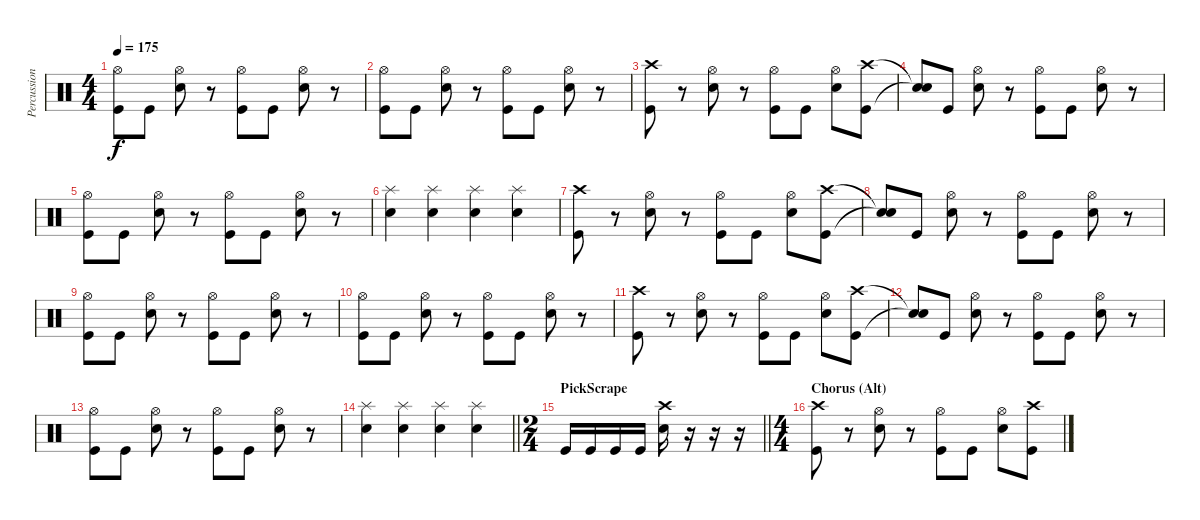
\track ("Percussion" "Percussion") {instrument percussion}
\staff {score}
\articulation defaults
\ts (4 4)
\tempo 175
\clef neutral
\ks c
("Hi-Hat (open)" "Kick (hit)").8{dy f} "Kick (hit)".8 ("Hi-Hat (open)" "Snare (hit) 2").8 r.8 ("Hi-Hat (open)" "Kick (hit)").8 "Kick (hit)".8 ("Hi-Hat (open)" "Snare (hit) 2").8 r.8 |
("Hi-Hat (open)" "Kick (hit)").8 "Kick (hit)".8 ("Hi-Hat (open)" "Snare (hit) 2").8 r.8 ("Hi-Hat (open)" "Kick (hit)").8 "Kick (hit)".8 ("Hi-Hat (open)" "Snare (hit) 2").8 r.8 |
("Crash high (hit)" "Kick (hit)").8 r.8 ("Hi-Hat (open)" "Snare (hit) 2").8 r.8 ("Hi-Hat (open)" "Kick (hit)").8 "Kick (hit)".8 ("Hi-Hat (open)" "Snare (hit) 2").8 ("Crash high (hit)" "Kick (hit)").8 |
("Snare (hit)"{t} "Snare (hit)"{t}).8 "Kick (hit)".8 ("Hi-Hat (open)" "Snare (hit) 2").8 r.8 ("Hi-Hat (open)" "Kick (hit)").8 "Kick (hit)".8 ("Hi-Hat (open)" "Snare (hit) 2").8 r.8 |
("Hi-Hat (open)" "Kick (hit)").8 "Kick (hit)".8 ("Hi-Hat (open)" "Snare (hit) 2").8 r.8 ("Hi-Hat (open)" "Kick (hit)").8 "Kick (hit)".8 ("Hi-Hat (open)" "Snare (hit) 2").8 r.8 |
("Splash (hit)" "Snare (hit) 2").4 ("Splash (hit)" "Snare (hit) 2").4 ("Splash (hit)" "Snare (hit) 2").4 ("Splash (hit)" "Snare (hit) 2").4 |
("Crash high (hit)" "Kick (hit)").8 r.8 ("Hi-Hat (open)" "Snare (hit) 2").8 r.8 ("Hi-Hat (open)" "Kick (hit)").8 "Kick (hit)".8 ("Hi-Hat (open)" "Snare (hit) 2").8 ("Crash high (hit)" "Kick (hit)").8 |
("Snare (hit)"{t} "Snare (hit)"{t}).8 "Kick (hit)".8 ("Hi-Hat (open)" "Snare (hit) 2").8 r.8 ("Hi-Hat (open)" "Kick (hit)").8 "Kick (hit)".8 ("Hi-Hat (open)" "Snare (hit) 2").8 r.8 |
("Hi-Hat (open)" "Kick (hit)").8 "Kick (hit)".8 ("Hi-Hat (open)" "Snare (hit) 2").8 r.8 ("Hi-Hat (open)" "Kick (hit)").8 "Kick (hit)".8 ("Hi-Hat (open)" "Snare (hit) 2").8 r.8 |
("Hi-Hat (open)" "Kick (hit)").8 "Kick (hit)".8 ("Hi-Hat (open)" "Snare (hit) 2").8 r.8 ("Hi-Hat (open)" "Kick (hit)").8 "Kick (hit)".8 ("Hi-Hat (open)" "Snare (hit) 2").8 r.8 |
("Crash high (hit)" "Kick (hit)").8 r.8 ("Hi-Hat (open)" "Snare (hit) 2").8 r.8 ("Hi-Hat (open)" "Kick (hit)").8 "Kick (hit)".8 ("Hi-Hat (open)" "Snare (hit) 2").8 ("Crash high (hit)" "Kick (hit)").8 |
("Snare (hit)"{t} "Snare (hit)"{t}).8 "Kick (hit)".8 ("Hi-Hat (open)" "Snare (hit) 2").8 r.8 ("Hi-Hat (open)" "Kick (hit)").8 "Kick (hit)".8 ("Hi-Hat (open)" "Snare (hit) 2").8 r.8 |
("Hi-Hat (open)" "Kick (hit)").8 "Kick (hit)".8 ("Hi-Hat (open)" "Snare (hit) 2").8 r.8 ("Hi-Hat (open)" "Kick (hit)").8 "Kick (hit)".8 ("Hi-Hat (open)" "Snare (hit) 2").8 r.8 |
\barLineRight lightlight
("Splash (hit)" "Snare (hit) 2").4 ("Splash (hit)" "Snare (hit) 2").4 ("Splash (hit)" "Snare (hit) 2").4 ("Splash (hit)" "Snare (hit) 2").4 |
\ts (2 4)
\section ("" "PickScrape")
\barLineRight lightlight "Kick (hit)".16 "Kick (hit)".16 "Kick (hit)".16 "Kick (hit)".16
("Crash high (hit)" "Snare (hit) 2").16 r.16 r.16 r.16 |
\ts (4 4)
\section ("" "Chorus (Alt)")
("Crash high (hit)" "Kick (hit)").8 r.8 ("Hi-Hat (open)" "Snare (hit) 2").8 r.8 ("Hi-Hat (open)" "Kick (hit)").8 "Kick (hit)".8 ("Hi-Hat (open)" "Snare (hit) 2").8 ("Crash high (hit)" "Kick (hit)").8
